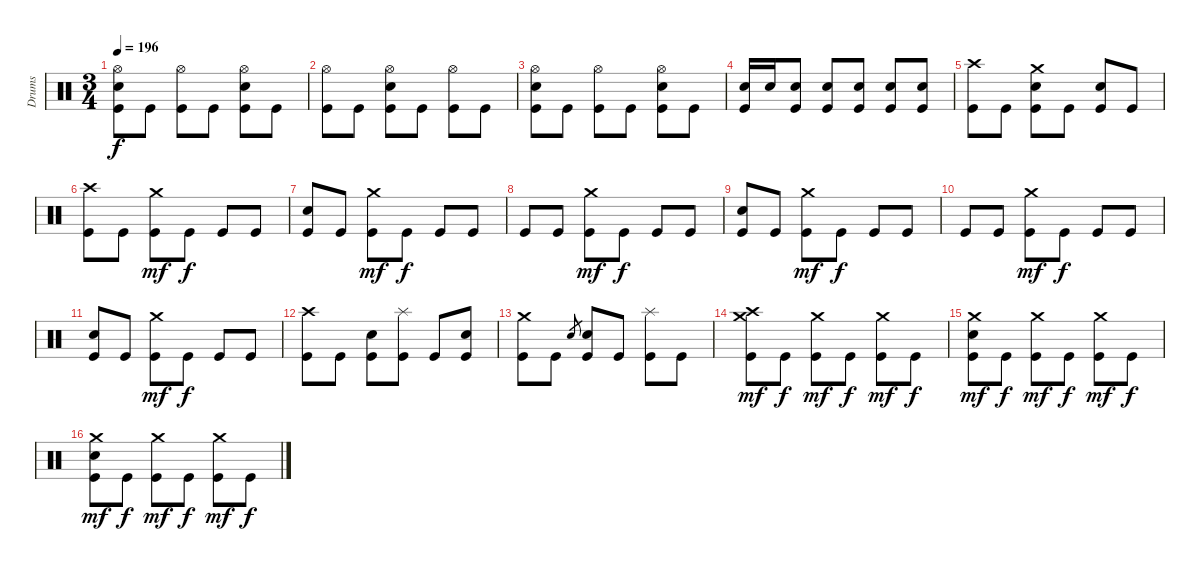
\track ("Drums" "Drums") {instrument percussion}
\staff {score}
\articulation defaults
\ts (3 4)
\tempo 196
\clef neutral
\ks c
("Hi-Hat (open)" "Electric Snare (hit)" "Kick (hit)").8{dy f} "Kick (hit)".8 ("Hi-Hat (open)" "Kick (hit)").8 "Kick (hit)".8 ("Hi-Hat (open)" "Electric Snare (hit)" "Kick (hit)").8 "Kick (hit)".8 |
("Hi-Hat (open)" "Kick (hit)").8 "Kick (hit)".8 ("Hi-Hat (open)" "Electric Snare (hit)" "Kick (hit)").8 "Kick (hit)".8 ("Hi-Hat (open)" "Kick (hit)").8 "Kick (hit)".8 |
("Hi-Hat (open)" "Electric Snare (hit)" "Kick (hit)").8 "Kick (hit)".8 ("Hi-Hat (open)" "Kick (hit)").8 "Kick (hit)".8 ("Hi-Hat (open)" "Electric Snare (hit)" "Kick (hit)").8 "Kick (hit)".8 |
("Electric Snare (hit)" "Kick (hit)").16 "Electric Snare (hit)".16 ("Electric Snare (hit)" "Kick (hit)").8 ("Electric Snare (hit)" "Kick (hit)").8 ("Electric Snare (hit)" "Kick (hit)").8 ("Electric Snare (hit)" "Kick (hit)").8 ("Electric Snare (hit)" "Kick (hit)").8 |
("Crash high (hit)" "Kick (hit)").8 "Kick (hit)".8 ("Crash medium (hit)" "Electric Snare (hit)" "Kick (hit)").8 "Kick (hit)".8 ("Electric Snare (hit)" "Kick (hit)").8 "Kick (hit)".8 |
("Crash high (hit)" "Kick (hit)").8 "Kick (hit)".8 ("Crash medium (hit)" "Kick (hit)").8{dy mf} "Kick (hit)".8{dy f} "Kick (hit)".8 "Kick (hit)".8 |
("Electric Snare (hit)" "Kick (hit)").8 "Kick (hit)".8 ("Crash medium (hit)" "Kick (hit)").8{dy mf} "Kick (hit)".8{dy f} "Kick (hit)".8 "Kick (hit)".8 |
"Kick (hit)".8 "Kick (hit)".8 ("Crash medium (hit)" "Kick (hit)").8{dy mf} "Kick (hit)".8{dy f} "Kick (hit)".8 "Kick (hit)".8 |
("Electric Snare (hit)" "Kick (hit)").8 "Kick (hit)".8 ("Crash medium (hit)" "Kick (hit)").8{dy mf} "Kick (hit)".8{dy f} "Kick (hit)".8 "Kick (hit)".8 |
"Kick (hit)".8 "Kick (hit)".8 ("Crash medium (hit)" "Kick (hit)").8{dy mf} "Kick (hit)".8{dy f} "Kick (hit)".8 "Kick (hit)".8 |
("Electric Snare (hit)" "Kick (hit)").8 "Kick (hit)".8 ("Crash medium (hit)" "Kick (hit)").8{dy mf} "Kick (hit)".8{dy f} "Kick (hit)".8 "Kick (hit)".8 |
("Crash high (hit)" "Kick (hit)").8 "Kick (hit)".8 ("Electric Snare (hit)" "Kick (hit)").8 ("Splash (hit)" "Kick (hit)").8 "Kick (hit)".8 ("Electric Snare (hit)" "Kick (hit)").8 |
("Crash medium (hit)" "Kick (hit)").8 "Kick (hit)".8 "Electric Snare (hit)".8{gr} ("Electric Snare (hit)" "Kick (hit)").8 "Kick (hit)".8 ("Splash (hit)" "Kick (hit)").8 "Kick (hit)".8 |
("Crash high (hit)" "Crash medium (hit)" "Kick (hit)").8{dy mf} "Kick (hit)".8{dy f} ("Crash medium (hit)" "Kick (hit)").8{dy mf} "Kick (hit)".8{dy f} ("Crash medium (hit)" "Kick (hit)").8{dy mf} "Kick (hit)".8{dy f} |
("Crash medium (hit)" "Electric Snare (hit)" "Kick (hit)").8{dy mf} "Kick (hit)".8{dy f} ("Crash medium (hit)" "Kick (hit)").8{dy mf} "Kick (hit)".8{dy f} ("Crash medium (hit)" "Kick (hit)").8{dy mf} "Kick (hit)".8{dy f} |
("Crash medium (hit)" "Electric Snare (hit)" "Kick (hit)").8{dy mf} "Kick (hit)".8{dy f} ("Crash medium (hit)" "Kick (hit)").8{dy mf} "Kick (hit)".8{dy f} ("Crash medium (hit)" "Kick (hit)").8{dy mf} "Kick (hit)".8{dy f}
